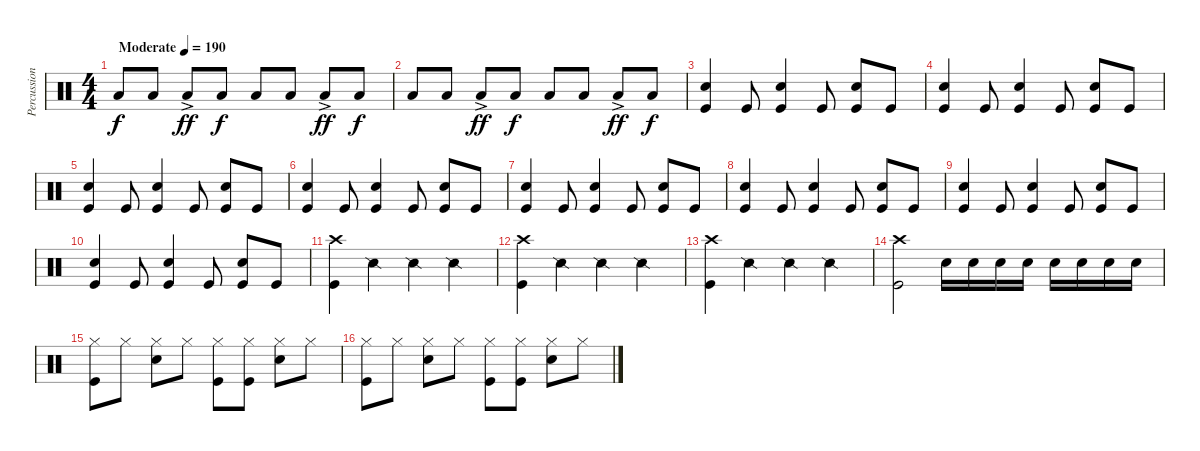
\track ("Percussion" "Percussion") {instrument percussion}
\staff {score}
\articulation defaults
\ts (4 4)
\tempo (190 "Moderate")
\clef neutral
\ks c "Low Tom (hit)".8{dy f} "Low Tom (hit)".8 "Low Tom (hit)"{ac}.8{dy ff} "Low Tom (hit)".8{dy f} "Low Tom (hit)".8 "Low Tom (hit)".8 "Low Tom (hit)"{ac}.8{dy ff} "Low Tom (hit)".8{dy f}
|
"Low Tom (hit)".8 "Low Tom (hit)".8 "Low Tom (hit)"{ac}.8{dy ff} "Low Tom (hit)".8{dy f} "Low Tom (hit)".8 "Low Tom (hit)".8 "Low Tom (hit)"{ac}.8{dy ff} "Low Tom (hit)".8{dy f} |
("Snare (hit) 2" "Kick (hit)").4 "Kick (hit)".8 ("Snare (hit) 2" "Kick (hit)").4 "Kick (hit)".8 ("Snare (hit) 2" "Kick (hit)").8 "Kick (hit)".8 |
("Snare (hit) 2" "Kick (hit)").4 "Kick (hit)".8 ("Snare (hit) 2" "Kick (hit)").4 "Kick (hit)".8 ("Snare (hit) 2" "Kick (hit)").8 "Kick (hit)".8 |
("Snare (hit) 2" "Kick (hit)").4 "Kick (hit)".8 ("Snare (hit) 2" "Kick (hit)").4 "Kick (hit)".8 ("Snare (hit) 2" "Kick (hit)").8 "Kick (hit)".8 |
("Snare (hit) 2" "Kick (hit)").4 "Kick (hit)".8 ("Snare (hit) 2" "Kick (hit)").4 "Kick (hit)".8 ("Snare (hit) 2" "Kick (hit)").8 "Kick (hit)".8 |
("Snare (hit) 2" "Kick (hit)").4 "Kick (hit)".8 ("Snare (hit) 2" "Kick (hit)").4 "Kick (hit)".8 ("Snare (hit) 2" "Kick (hit)").8 "Kick (hit)".8 |
("Snare (hit) 2" "Kick (hit)").4 "Kick (hit)".8 ("Snare (hit) 2" "Kick (hit)").4 "Kick (hit)".8 ("Snare (hit) 2" "Kick (hit)").8 "Kick (hit)".8 |
("Snare (hit) 2" "Kick (hit)").4 "Kick (hit)".8 ("Snare (hit) 2" "Kick (hit)").4 "Kick (hit)".8 ("Snare (hit) 2" "Kick (hit)").8 "Kick (hit)".8 |
("Snare (hit) 2" "Kick (hit)").4 "Kick (hit)".8 ("Snare (hit) 2" "Kick (hit)").4 "Kick (hit)".8 ("Snare (hit) 2" "Kick (hit)").8 "Kick (hit)".8 |
("Crash high (hit)" "Kick (hit)").4 "Snare (side stick) 2".4 "Snare (side stick) 2".4 "Snare (side stick) 2".4 |
("Crash high (hit)" "Kick (hit)").4 "Snare (side stick) 2".4 "Snare (side stick) 2".4 "Snare (side stick) 2".4 |
("Crash high (hit)" "Kick (hit)").4 "Snare (side stick) 2".4 "Snare (side stick) 2".4 "Snare (side stick) 2".4 |
("Crash high (hit)" "Kick (hit)").2 "Snare (hit) 2".16 "Snare (hit) 2".16 "Snare (hit) 2".16 "Snare (hit) 2".16 "Snare (hit) 2".16 "Snare (hit) 2".16 "Snare (hit) 2".16 "Snare (hit) 2".16 |
("Hi-Hat (closed)" "Kick (hit)").8 "Hi-Hat (closed)".8 ("Snare (hit) 2" "Hi-Hat (closed)").8 "Hi-Hat (closed)".8 ("Hi-Hat (closed)" "Kick (hit)").8 ("Hi-Hat (closed)" "Kick (hit)").8 ("Snare (hit) 2" "Hi-Hat (closed)").8 "Hi-Hat (closed)".8 |
("Hi-Hat (closed)" "Kick (hit)").8 "Hi-Hat (closed)".8 ("Snare (hit) 2" "Hi-Hat (closed)").8 "Hi-Hat (closed)".8 ("Hi-Hat (closed)" "Kick (hit)").8 ("Hi-Hat (closed)" "Kick (hit)").8 ("Snare (hit) 2" "Hi-Hat (closed)").8 "Hi-Hat (closed)".8
